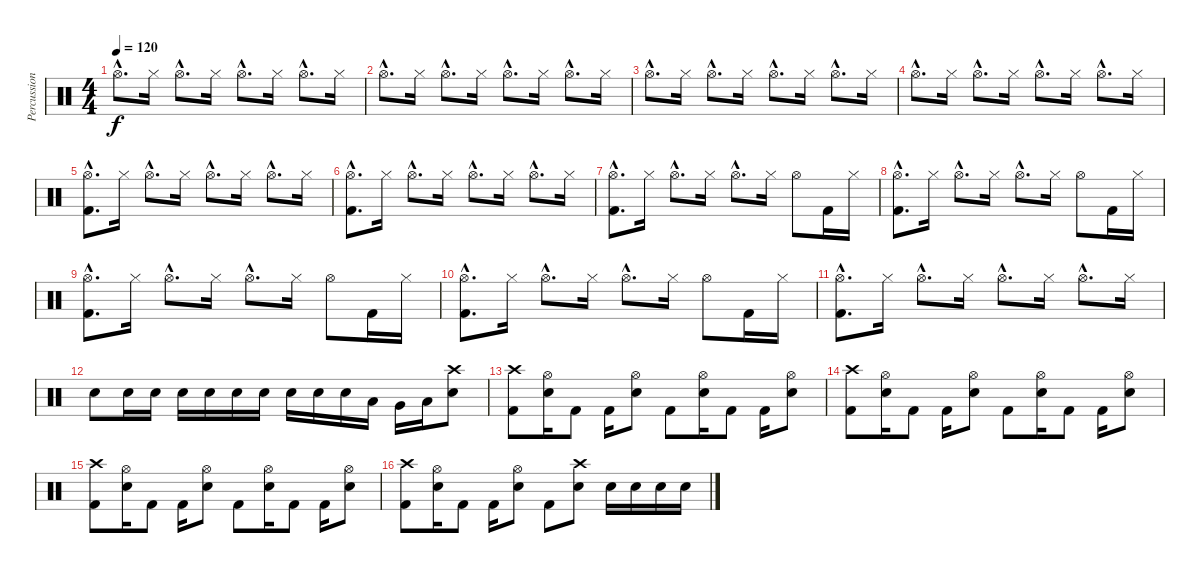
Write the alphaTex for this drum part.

\track ("Percussion" "Percussion") {instrument percussion}
\staff {score}
\articulation defaults
\ts (4 4)
\tempo 120
\clef neutral
\ks c "Hi-Hat (open)"{hac}.8{d dy f} "Hi-Hat (closed)".16 "Hi-Hat (open)"{hac}.8{d} "Hi-Hat (closed)".16 "Hi-Hat (open)"{hac}.8{d} "Hi-Hat (closed)".16 "Hi-Hat (open)"{hac}.8{d} "Hi-Hat (closed)".16
|
"Hi-Hat (open)"{hac}.8{d} "Hi-Hat (closed)".16 "Hi-Hat (open)"{hac}.8{d} "Hi-Hat (closed)".16 "Hi-Hat (open)"{hac}.8{d} "Hi-Hat (closed)".16 "Hi-Hat (open)"{hac}.8{d} "Hi-Hat (closed)".16 |
"Hi-Hat (open)"{hac}.8{d} "Hi-Hat (closed)".16 "Hi-Hat (open)"{hac}.8{d} "Hi-Hat (closed)".16 "Hi-Hat (open)"{hac}.8{d} "Hi-Hat (closed)".16 "Hi-Hat (open)"{hac}.8{d} "Hi-Hat (closed)".16 |
"Hi-Hat (open)"{hac}.8{d} "Hi-Hat (closed)".16 "Hi-Hat (open)"{hac}.8{d} "Hi-Hat (closed)".16 "Hi-Hat (open)"{hac}.8{d} "Hi-Hat (closed)".16 "Hi-Hat (open)"{hac}.8{d} "Hi-Hat (closed)".16 |
("Hi-Hat (open)"{hac} "Kick (hit) 2"{hac}).8{d} "Hi-Hat (closed)".16 "Hi-Hat (open)"{hac}.8{d} "Hi-Hat (closed)".16 "Hi-Hat (open)"{hac}.8{d} "Hi-Hat (closed)".16 "Hi-Hat (open)"{hac}.8{d} "Hi-Hat (closed)".16 |
("Hi-Hat (open)"{hac} "Kick (hit) 2"{hac}).8{d} "Hi-Hat (closed)".16 "Hi-Hat (open)"{hac}.8{d} "Hi-Hat (closed)".16 "Hi-Hat (open)"{hac}.8{d} "Hi-Hat (closed)".16 "Hi-Hat (open)"{hac}.8{d} "Hi-Hat (closed)".16 |
("Hi-Hat (open)"{hac} "Kick (hit) 2"{hac}).8{d} "Hi-Hat (closed)".16 "Hi-Hat (open)"{hac}.8{d} "Hi-Hat (closed)".16 "Hi-Hat (open)"{hac}.8{d} "Hi-Hat (closed)".16 "Hi-Hat (open)".8 "Kick (hit) 2".16 "Hi-Hat (closed)".16 |
("Hi-Hat (open)"{hac} "Kick (hit) 2"{hac}).8{d} "Hi-Hat (closed)".16 "Hi-Hat (open)"{hac}.8{d} "Hi-Hat (closed)".16 "Hi-Hat (open)"{hac}.8{d} "Hi-Hat (closed)".16 "Hi-Hat (open)".8 "Kick (hit) 2".16 "Hi-Hat (closed)".16 |
("Hi-Hat (open)"{hac} "Kick (hit) 2"{hac}).8{d} "Hi-Hat (closed)".16 "Hi-Hat (open)"{hac}.8{d} "Hi-Hat (closed)".16 "Hi-Hat (open)"{hac}.8{d} "Hi-Hat (closed)".16 "Hi-Hat (open)".8 "Kick (hit) 2".16 "Hi-Hat (closed)".16 |
("Hi-Hat (open)"{hac} "Kick (hit) 2"{hac}).8{d} "Hi-Hat (closed)".16 "Hi-Hat (open)"{hac}.8{d} "Hi-Hat (closed)".16 "Hi-Hat (open)"{hac}.8{d} "Hi-Hat (closed)".16 "Hi-Hat (open)".8 "Kick (hit) 2".16 "Hi-Hat (closed)".16 |
("Hi-Hat (open)"{hac} "Kick (hit) 2"{hac}).8{d} "Hi-Hat (closed)".16 "Hi-Hat (open)"{hac}.8{d} "Hi-Hat (closed)".16 "Hi-Hat (open)"{hac}.8{d} "Hi-Hat (closed)".16 "Hi-Hat (open)"{hac}.8{d} "Hi-Hat (closed)".16 |
"Snare (hit) 2".8 "Snare (hit) 2".16 "Snare (hit) 2".16 "Snare (hit) 2".16 "Snare (hit) 2".16 "Snare (hit) 2".16 "Snare (hit) 2".16 "Snare (hit) 2".16 "Snare (hit) 2".16 "Snare (hit) 2".16 "Low Tom (hit)".16 "Very Low Tom (hit)".16 "Low Floor Tom (hit)".16 ("Crash high (hit)" "Snare (hit) 2").8 |
("Crash high (hit)" "Kick (hit) 2").8 ("Hi-Hat (open)" "Snare (hit) 2").16 "Kick (hit) 2".8 "Kick (hit) 2".16 ("Hi-Hat (open)" "Snare (hit) 2").8 "Kick (hit) 2".8 ("Hi-Hat (open)" "Snare (hit) 2").16 "Kick (hit) 2".8 "Kick (hit) 2".16 ("Hi-Hat (open)" "Snare (hit) 2").8 |
("Crash high (hit)" "Kick (hit) 2").8 ("Hi-Hat (open)" "Snare (hit) 2").16 "Kick (hit) 2".8 "Kick (hit) 2".16 ("Hi-Hat (open)" "Snare (hit) 2").8 "Kick (hit) 2".8 ("Hi-Hat (open)" "Snare (hit) 2").16 "Kick (hit) 2".8 "Kick (hit) 2".16 ("Hi-Hat (open)" "Snare (hit) 2").8 |
("Crash high (hit)" "Kick (hit) 2").8 ("Hi-Hat (open)" "Snare (hit) 2").16 "Kick (hit) 2".8 "Kick (hit) 2".16 ("Hi-Hat (open)" "Snare (hit) 2").8 "Kick (hit) 2".8 ("Hi-Hat (open)" "Snare (hit) 2").16 "Kick (hit) 2".8 "Kick (hit) 2".16 ("Hi-Hat (open)" "Snare (hit) 2").8 |
("Crash high (hit)" "Kick (hit) 2").8 ("Hi-Hat (open)" "Snare (hit) 2").16 "Kick (hit) 2".8 "Kick (hit) 2".16 ("Hi-Hat (open)" "Snare (hit) 2").8 "Kick (hit) 2".8 ("Crash high (hit)" "Snare (hit) 2").8 "Snare (hit) 2".16 "Snare (hit) 2".16 "Snare (hit) 2".16 "Snare (hit) 2".16
